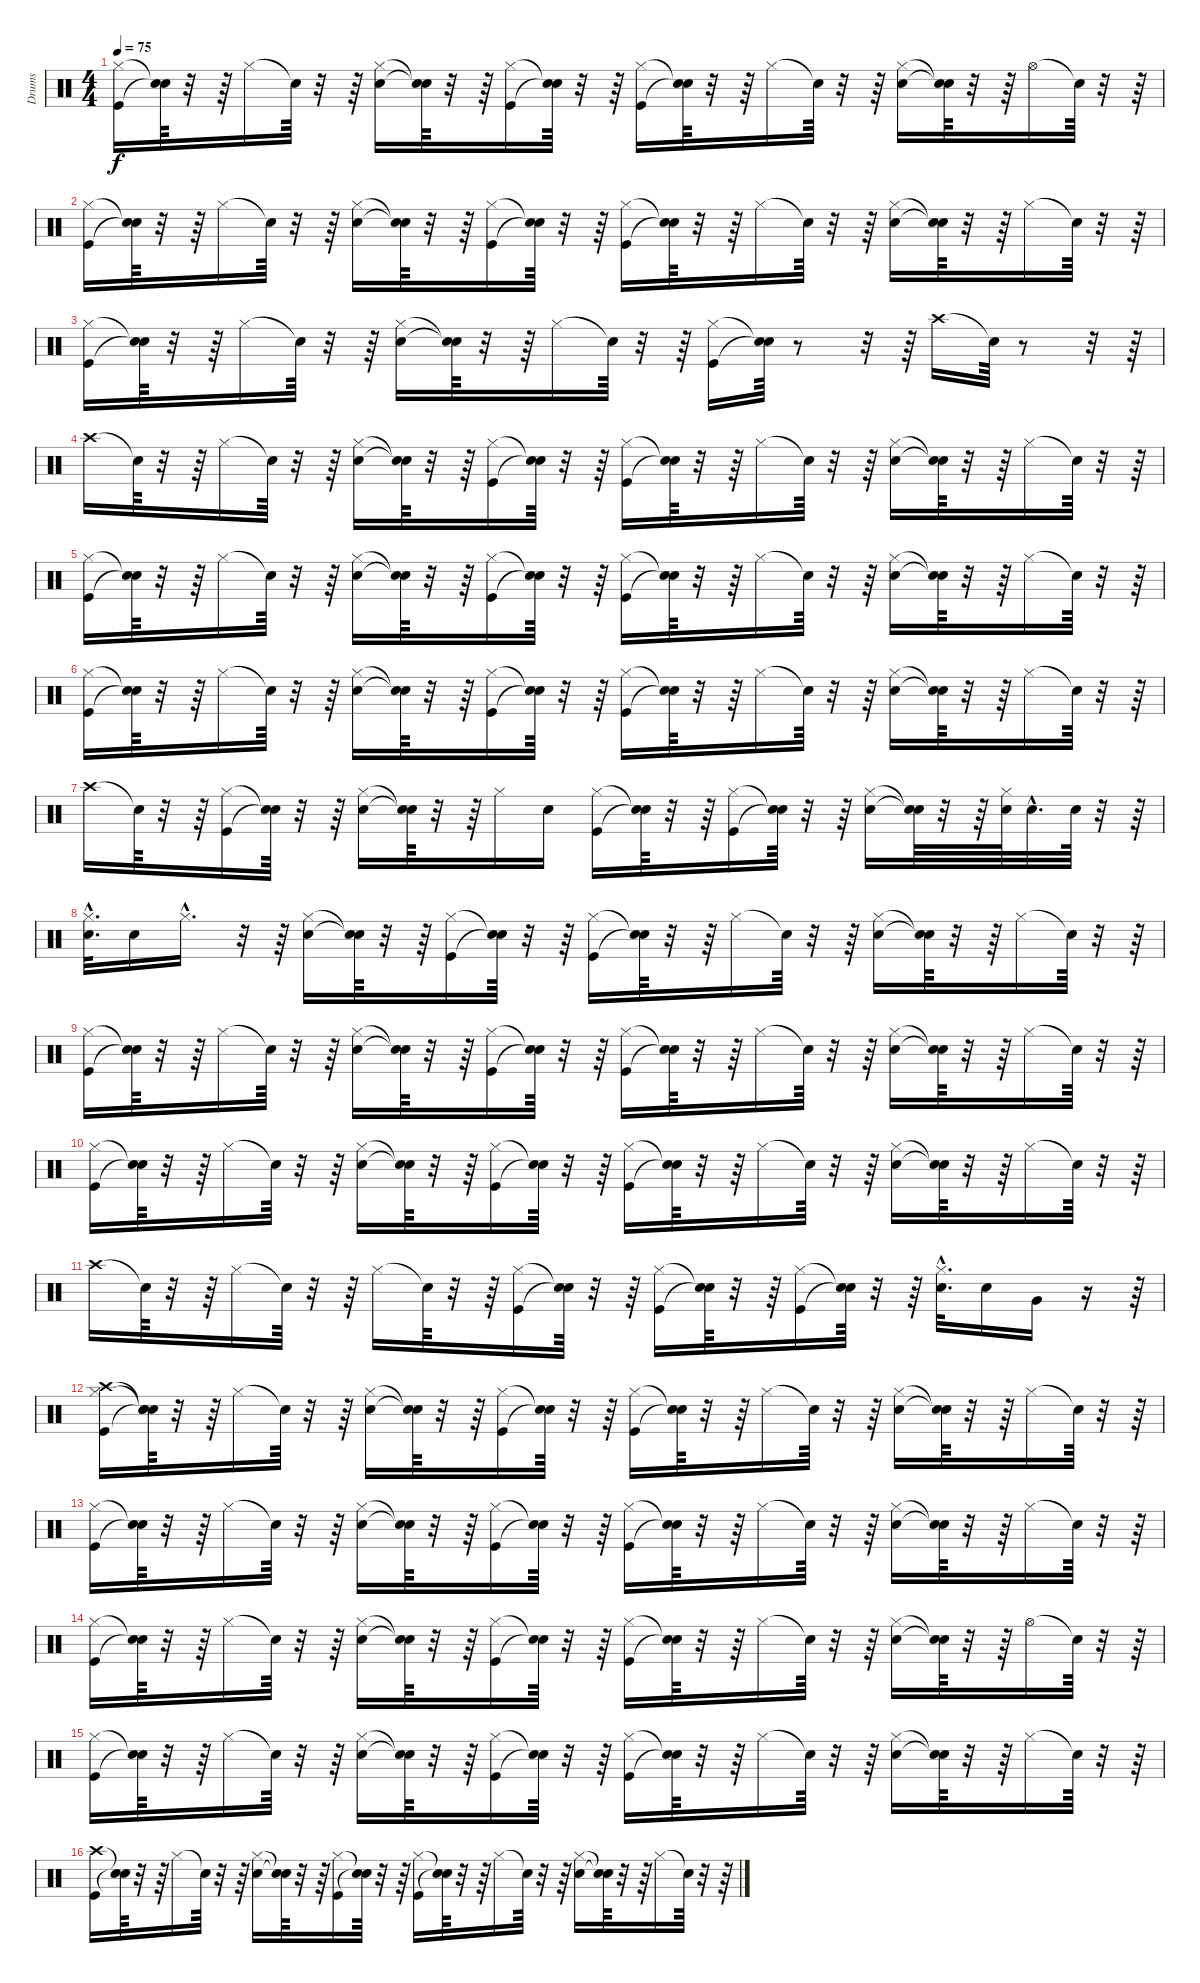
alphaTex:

\track ("Drums" "Drums") {instrument percussion}
\staff {score}
\articulation defaults
\ts (4 4)
\tempo 75
\clef neutral
\ks c
("Hi-Hat (closed)" "Kick (hit)").16{dy f} ("Snare (hit)"{t} "Snare (hit)"{t}).64 r.32 r.64 "Hi-Hat (closed)".16 "Snare (hit)"{t}.64 r.32 r.64 ("Hi-Hat (closed)" "Snare (hit) 2").16 ("Snare (hit)"{t} "Snare (hit)"{t}).64 r.32 r.64 ("Hi-Hat (closed)" "Kick (hit)").16 ("Snare (hit)"{t} "Snare (hit)"{t}).64 r.32 r.64 ("Hi-Hat (closed)" "Kick (hit)").16 ("Snare (hit)"{t} "Snare (hit)"{t}).64 r.32 r.64 "Hi-Hat (closed)".16 "Snare (hit)"{t}.64 r.32 r.64 ("Hi-Hat (closed)" "Snare (hit) 2").16 ("Snare (hit)"{t} "Snare (hit)"{t}).64 r.32 r.64 "Hi-Hat (open)".16 "Snare (hit)"{t}.64 r.32 r.64 |
("Kick (hit)" "Hi-Hat (closed)").16 ("Snare (hit)"{t} "Snare (hit)"{t}).64 r.32 r.64 "Hi-Hat (closed)".16 "Snare (hit)"{t}.64 r.32 r.64 ("Snare (hit) 2" "Hi-Hat (closed)").16 ("Snare (hit)"{t} "Snare (hit)"{t}).64 r.32 r.64 ("Kick (hit)" "Hi-Hat (closed)").16 ("Snare (hit)"{t} "Snare (hit)"{t}).64 r.32 r.64 ("Kick (hit)" "Hi-Hat (closed)").16 ("Snare (hit)"{t} "Snare (hit)"{t}).64 r.32 r.64 "Hi-Hat (closed)".16 "Snare (hit)"{t}.64 r.32 r.64 ("Snare (hit) 2" "Hi-Hat (closed)").16 ("Snare (hit)"{t} "Snare (hit)"{t}).64 r.32 r.64 "Hi-Hat (closed)".16 "Snare (hit)"{t}.64 r.32 r.64 |
("Hi-Hat (closed)" "Kick (hit)").16 ("Snare (hit)"{t} "Snare (hit)"{t}).64 r.32 r.64 "Hi-Hat (closed)".16 "Snare (hit)"{t}.64 r.32 r.64 ("Hi-Hat (closed)" "Snare (hit) 2").16 ("Snare (hit)"{t} "Snare (hit)"{t}).64 r.32 r.64 "Hi-Hat (closed)".16 "Snare (hit)"{t}.64 r.32 r.64 ("Hi-Hat (closed)" "Kick (hit)").16 ("Snare (hit)"{t} "Snare (hit)"{t}).64 r.8 r.32 r.64 "Crash high (hit)".16 "Snare (hit)"{t}.64 r.8 r.32 r.64 |
"Crash high (hit)".16 "Snare (hit)"{t}.64 r.32 r.64 "Hi-Hat (closed)".16 "Snare (hit)"{t}.64 r.32 r.64 ("Hi-Hat (closed)" "Snare (hit) 2").16 ("Snare (hit)"{t} "Snare (hit)"{t}).64 r.32 r.64 ("Hi-Hat (closed)" "Kick (hit)").16 ("Snare (hit)"{t} "Snare (hit)"{t}).64 r.32 r.64 ("Hi-Hat (closed)" "Kick (hit)").16 ("Snare (hit)"{t} "Snare (hit)"{t}).64 r.32 r.64 "Hi-Hat (closed)".16 "Snare (hit)"{t}.64 r.32 r.64 ("Hi-Hat (closed)" "Snare (hit) 2").16 ("Snare (hit)"{t} "Snare (hit)"{t}).64 r.32 r.64 "Hi-Hat (closed)".16 "Snare (hit)"{t}.64 r.32 r.64 |
("Kick (hit)" "Hi-Hat (closed)").16 ("Snare (hit)"{t} "Snare (hit)"{t}).64 r.32 r.64 "Hi-Hat (closed)".16 "Snare (hit)"{t}.64 r.32 r.64 ("Snare (hit) 2" "Hi-Hat (closed)").16 ("Snare (hit)"{t} "Snare (hit)"{t}).64 r.32 r.64 ("Hi-Hat (closed)" "Kick (hit)").16 ("Snare (hit)"{t} "Snare (hit)"{t}).64 r.32 r.64 ("Kick (hit)" "Hi-Hat (closed)").16 ("Snare (hit)"{t} "Snare (hit)"{t}).64 r.32 r.64 "Hi-Hat (closed)".16 "Snare (hit)"{t}.64 r.32 r.64 ("Hi-Hat (closed)" "Snare (hit) 2").16 ("Snare (hit)"{t} "Snare (hit)"{t}).64 r.32 r.64 "Hi-Hat (closed)".16 "Snare (hit)"{t}.64 r.32 r.64 |
("Kick (hit)" "Hi-Hat (closed)").16 ("Snare (hit)"{t} "Snare (hit)"{t}).64 r.32 r.64 "Hi-Hat (closed)".16 "Snare (hit)"{t}.64 r.32 r.64 ("Snare (hit) 2" "Hi-Hat (closed)").16 ("Snare (hit)"{t} "Snare (hit)"{t}).64 r.32 r.64 ("Hi-Hat (closed)" "Kick (hit)").16 ("Snare (hit)"{t} "Snare (hit)"{t}).64 r.32 r.64 ("Kick (hit)" "Hi-Hat (closed)").16 ("Snare (hit)"{t} "Snare (hit)"{t}).64 r.32 r.64 "Hi-Hat (closed)".16 "Snare (hit)"{t}.64 r.32 r.64 ("Hi-Hat (closed)" "Snare (hit) 2").16 ("Snare (hit)"{t} "Snare (hit)"{t}).64 r.32 r.64 "Hi-Hat (closed)".16 "Snare (hit)"{t}.64 r.32 r.64 |
"Crash high (hit)".16 "Snare (hit)"{t}.64 r.32 r.64 ("Kick (hit)" "Hi-Hat (closed)").16 ("Snare (hit)"{t} "Snare (hit)"{t}).64 r.32 r.64 ("Snare (hit) 2" "Hi-Hat (closed)").16 ("Snare (hit)"{t} "Snare (hit)"{t}).64 r.32 r.64 "Hi-Hat (closed)".16 "Snare (hit) 2".16 ("Hi-Hat (closed)" "Kick (hit)").16 ("Snare (hit)"{t} "Snare (hit)"{t}).64 r.32 r.64 ("Hi-Hat (closed)" "Kick (hit)").16 ("Snare (hit)"{t} "Snare (hit)"{t}).64 r.32 r.64 ("Hi-Hat (closed)" "Snare (hit) 2").16 ("Snare (hit)"{t} "Snare (hit)"{t}).64 r.32 r.64 ("Snare (hit) 2" "Hi-Hat (closed)").64 "Snare (hit) 2"{hac}.32{d} "Snare (hit) 2".64 r.32 r.64 |
("Snare (hit) 2"{hac} "Hi-Hat (closed)"{hac}).32{d} "Snare (hit) 2".16 "Hi-Hat (closed)"{hac}.16{d} r.32 r.64 ("Snare (hit) 2" "Hi-Hat (closed)").16 ("Snare (hit)"{t} "Snare (hit)"{t}).64 r.32 r.64 ("Kick (hit)" "Hi-Hat (closed)").16 ("Snare (hit)"{t} "Snare (hit)"{t}).64 r.32 r.64 ("Kick (hit)" "Hi-Hat (closed)").16 ("Snare (hit)"{t} "Snare (hit)"{t}).64 r.32 r.64 "Hi-Hat (closed)".16 "Snare (hit)"{t}.64 r.32 r.64 ("Snare (hit) 2" "Hi-Hat (closed)").16 ("Snare (hit)"{t} "Snare (hit)"{t}).64 r.32 r.64 "Hi-Hat (closed)".16 "Snare (hit)"{t}.64 r.32 r.64 |
("Kick (hit)" "Hi-Hat (closed)").16 ("Snare (hit)"{t} "Snare (hit)"{t}).64 r.32 r.64 "Hi-Hat (closed)".16 "Snare (hit)"{t}.64 r.32 r.64 ("Snare (hit) 2" "Hi-Hat (closed)").16 ("Snare (hit)"{t} "Snare (hit)"{t}).64 r.32 r.64 ("Kick (hit)" "Hi-Hat (closed)").16 ("Snare (hit)"{t} "Snare (hit)"{t}).64 r.32 r.64 ("Kick (hit)" "Hi-Hat (closed)").16 ("Snare (hit)"{t} "Snare (hit)"{t}).64 r.32 r.64 "Hi-Hat (closed)".16 "Snare (hit)"{t}.64 r.32 r.64 ("Snare (hit) 2" "Hi-Hat (closed)").16 ("Snare (hit)"{t} "Snare (hit)"{t}).64 r.32 r.64 "Hi-Hat (closed)".16 "Snare (hit)"{t}.64 r.32 r.64 |
("Kick (hit)" "Hi-Hat (closed)").16 ("Snare (hit)"{t} "Snare (hit)"{t}).64 r.32 r.64 "Hi-Hat (closed)".16 "Snare (hit)"{t}.64 r.32 r.64 ("Snare (hit) 2" "Hi-Hat (closed)").16 ("Snare (hit)"{t} "Snare (hit)"{t}).64 r.32 r.64 ("Kick (hit)" "Hi-Hat (closed)").16 ("Snare (hit)"{t} "Snare (hit)"{t}).64 r.32 r.64 ("Kick (hit)" "Hi-Hat (closed)").16 ("Snare (hit)"{t} "Snare (hit)"{t}).64 r.32 r.64 "Hi-Hat (closed)".16 "Snare (hit)"{t}.64 r.32 r.64 ("Snare (hit) 2" "Hi-Hat (closed)").16 ("Snare (hit)"{t} "Snare (hit)"{t}).64 r.32 r.64 "Hi-Hat (closed)".16 "Snare (hit)"{t}.64 r.32 r.64 |
"Crash high (hit)".16 "Snare (hit)"{t}.64 r.32 r.64 "Hi-Hat (closed)".16 "Snare (hit)"{t}.64 r.32 r.64 "Hi-Hat (closed)".16 "Snare (hit)"{t}.64 r.32 r.64 ("Kick (hit)" "Hi-Hat (closed)").16 ("Snare (hit)"{t} "Snare (hit)"{t}).64 r.32 r.64 ("Kick (hit)" "Hi-Hat (closed)").16 ("Snare (hit)"{t} "Snare (hit)"{t}).64 r.32 r.64 ("Kick (hit)" "Hi-Hat (closed)").16 ("Snare (hit)"{t} "Snare (hit)"{t}).64 r.32 r.64 ("Snare (hit) 2"{hac} "Hi-Hat (closed)"{hac}).32{d} "Snare (hit) 2".16 "Very Low Tom (hit)".16 r.16 r.64 |
("Crash high (hit)" "Kick (hit)" "Hi-Hat (closed)").16 ("Snare (hit)"{t} "Snare (hit)"{t} "Snare (hit)"{t}).64 r.32 r.64 "Hi-Hat (closed)".16 "Snare (hit)"{t}.64 r.32 r.64 ("Snare (hit) 2" "Hi-Hat (closed)").16 ("Snare (hit)"{t} "Snare (hit)"{t}).64 r.32 r.64 ("Kick (hit)" "Hi-Hat (closed)").16 ("Snare (hit)"{t} "Snare (hit)"{t}).64 r.32 r.64 ("Kick (hit)" "Hi-Hat (closed)").16 ("Snare (hit)"{t} "Snare (hit)"{t}).64 r.32 r.64 "Hi-Hat (closed)".16 "Snare (hit)"{t}.64 r.32 r.64 ("Snare (hit) 2" "Hi-Hat (closed)").16 ("Snare (hit)"{t} "Snare (hit)"{t}).64 r.32 r.64 "Hi-Hat (closed)".16 "Snare (hit)"{t}.64 r.32 r.64 |
("Kick (hit)" "Hi-Hat (closed)").16 ("Snare (hit)"{t} "Snare (hit)"{t}).64 r.32 r.64 "Hi-Hat (closed)".16 "Snare (hit)"{t}.64 r.32 r.64 ("Snare (hit) 2" "Hi-Hat (closed)").16 ("Snare (hit)"{t} "Snare (hit)"{t}).64 r.32 r.64 ("Kick (hit)" "Hi-Hat (closed)").16 ("Snare (hit)"{t} "Snare (hit)"{t}).64 r.32 r.64 ("Kick (hit)" "Hi-Hat (closed)").16 ("Snare (hit)"{t} "Snare (hit)"{t}).64 r.32 r.64 "Hi-Hat (closed)".16 "Snare (hit)"{t}.64 r.32 r.64 ("Snare (hit) 2" "Hi-Hat (closed)").16 ("Snare (hit)"{t} "Snare (hit)"{t}).64 r.32 r.64 "Hi-Hat (closed)".16 "Snare (hit)"{t}.64 r.32 r.64 |
("Kick (hit)" "Hi-Hat (closed)").16 ("Snare (hit)"{t} "Snare (hit)"{t}).64 r.32 r.64 "Hi-Hat (closed)".16 "Snare (hit)"{t}.64 r.32 r.64 ("Snare (hit) 2" "Hi-Hat (closed)").16 ("Snare (hit)"{t} "Snare (hit)"{t}).64 r.32 r.64 ("Kick (hit)" "Hi-Hat (closed)").16 ("Snare (hit)"{t} "Snare (hit)"{t}).64 r.32 r.64 ("Kick (hit)" "Hi-Hat (closed)").16 ("Snare (hit)"{t} "Snare (hit)"{t}).64 r.32 r.64 "Hi-Hat (closed)".16 "Snare (hit)"{t}.64 r.32 r.64 ("Snare (hit) 2" "Hi-Hat (closed)").16 ("Snare (hit)"{t} "Snare (hit)"{t}).64 r.32 r.64 "Hi-Hat (open)".16 "Snare (hit)"{t}.64 r.32 r.64 |
("Kick (hit)" "Hi-Hat (closed)").16 ("Snare (hit)"{t} "Snare (hit)"{t}).64 r.32 r.64 "Hi-Hat (closed)".16 "Snare (hit)"{t}.64 r.32 r.64 ("Snare (hit) 2" "Hi-Hat (closed)").16 ("Snare (hit)"{t} "Snare (hit)"{t}).64 r.32 r.64 ("Kick (hit)" "Hi-Hat (closed)").16 ("Snare (hit)"{t} "Snare (hit)"{t}).64 r.32 r.64 ("Kick (hit)" "Hi-Hat (closed)").16 ("Snare (hit)"{t} "Snare (hit)"{t}).64 r.32 r.64 "Hi-Hat (closed)".16 "Snare (hit)"{t}.64 r.32 r.64 ("Snare (hit) 2" "Hi-Hat (closed)").16 ("Snare (hit)"{t} "Snare (hit)"{t}).64 r.32 r.64 "Hi-Hat (closed)".16 "Snare (hit)"{t}.64 r.32 r.64 |
("Kick (hit)" "Crash high (hit)").16 ("Snare (hit)"{t} "Snare (hit)"{t}).64 r.32 r.64 "Hi-Hat (closed)".16 "Snare (hit)"{t}.64 r.32 r.64 ("Snare (hit) 2" "Hi-Hat (closed)").16 ("Snare (hit)"{t} "Snare (hit)"{t}).64 r.32 r.64 ("Kick (hit)" "Hi-Hat (closed)").16 ("Snare (hit)"{t} "Snare (hit)"{t}).64 r.32 r.64 ("Kick (hit)" "Hi-Hat (closed)").16 ("Snare (hit)"{t} "Snare (hit)"{t}).64 r.32 r.64 "Hi-Hat (closed)".16 "Snare (hit)"{t}.64 r.32 r.64 ("Snare (hit) 2" "Hi-Hat (closed)").16 ("Snare (hit)"{t} "Snare (hit)"{t}).64 r.32 r.64 "Hi-Hat (closed)".16 "Snare (hit)"{t}.64 r.32 r.64
